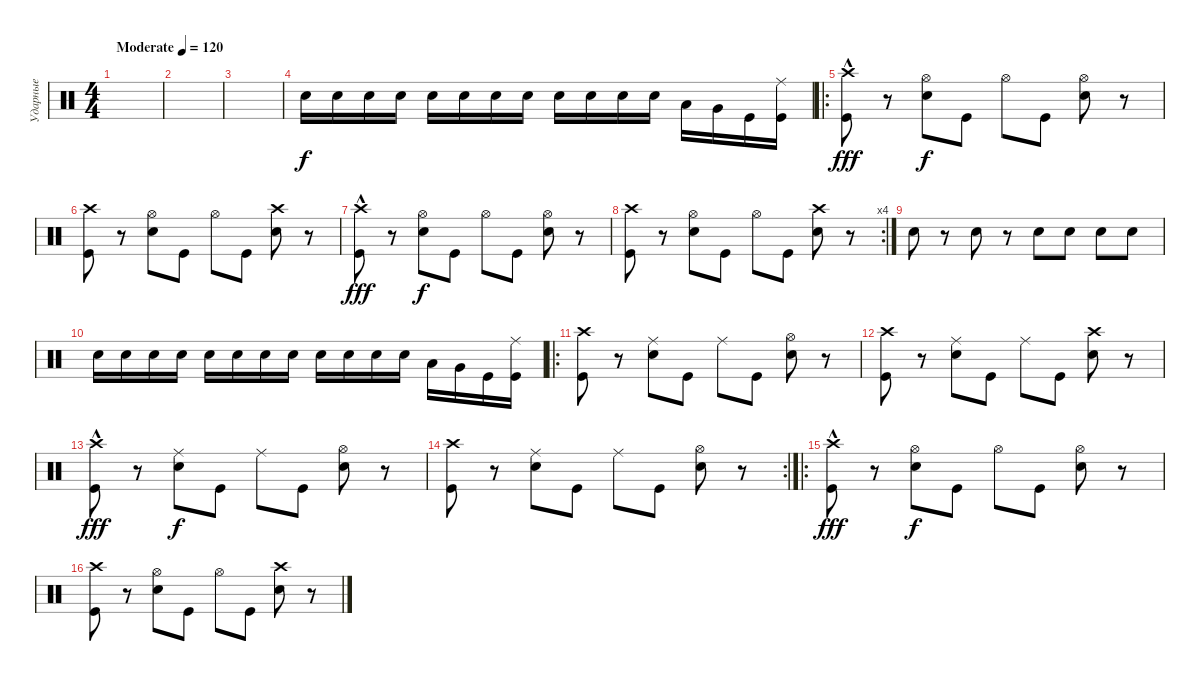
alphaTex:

\track ("Ударные" "Ударные") {instrument percussion}
\staff {score}
\articulation defaults
\ts (4 4)
\tempo (120 "Moderate")
\clef neutral
\ks c
|
|
|
"Snare (hit) 2".16{bu 60} "Snare (hit) 2".16 "Snare (hit) 2".16 "Snare (hit) 2".16 "Snare (hit) 2".16 "Snare (hit) 2".16 "Snare (hit) 2".16 "Snare (hit) 2".16 "Snare (hit) 2".16 "Snare (hit) 2".16 "Snare (hit) 2".16 "Snare (hit) 2".16 "Low Tom (hit)".16 "Very Low Tom (hit)".16 "Kick (hit)".16 ("Kick (hit)" "Ride (middle)").16 |
\ro
("Kick (hit)" "Crash high (hit)"{hac}).8{dy fff} r.8 ("Snare (hit) 2" "Hi-Hat (open)").8{dy f} "Kick (hit)".8 "Hi-Hat (open)".8 "Kick (hit)".8 ("Snare (hit) 2" "Hi-Hat (open)").8 r.8 |
("Kick (hit)" "Crash high (hit)").8 r.8 ("Snare (hit) 2" "Hi-Hat (open)").8 "Kick (hit)".8 "Hi-Hat (open)".8 "Kick (hit)".8 ("Snare (hit) 2" "Crash high (hit)").8 r.8 |
("Kick (hit)" "Crash high (hit)"{hac}).8{dy fff} r.8 ("Snare (hit) 2" "Hi-Hat (open)").8{dy f} "Kick (hit)".8 "Hi-Hat (open)".8 "Kick (hit)".8 ("Snare (hit) 2" "Hi-Hat (open)").8 r.8 |
\rc 4
("Kick (hit)" "Crash high (hit)").8 r.8 ("Snare (hit) 2" "Hi-Hat (open)").8 "Kick (hit)".8 "Hi-Hat (open)".8 "Kick (hit)".8 ("Snare (hit) 2" "Crash high (hit)").8 r.8 |
"Snare (hit) 2".8 r.8 "Snare (hit) 2".8 r.8 "Snare (hit) 2".8 "Snare (hit) 2".8 "Snare (hit) 2".8 "Snare (hit) 2".8 |
"Snare (hit) 2".16{bu 60} "Snare (hit) 2".16 "Snare (hit) 2".16 "Snare (hit) 2".16 "Snare (hit) 2".16 "Snare (hit) 2".16 "Snare (hit) 2".16 "Snare (hit) 2".16 "Snare (hit) 2".16 "Snare (hit) 2".16 "Snare (hit) 2".16 "Snare (hit) 2".16 "Low Tom (hit)".16 "Very Low Tom (hit)".16 "Kick (hit)".16 ("Kick (hit)" "Ride (middle)").16 |
\ro
("Crash high (hit)" "Kick (hit)").8 r.8 ("Snare (hit) 2" "Ride (middle)").8 "Kick (hit)".8 "Ride (middle)".8 "Kick (hit)".8 ("Snare (hit) 2" "Hi-Hat (open)").8 r.8 |
("Crash high (hit)" "Kick (hit)").8 r.8 ("Snare (hit) 2" "Ride (middle)").8 "Kick (hit)".8 "Ride (middle)".8 "Kick (hit)".8 ("Snare (hit) 2" "Crash high (hit)").8 r.8 |
("Crash high (hit)"{hac} "Kick (hit)").8{dy fff} r.8 ("Snare (hit) 2" "Ride (middle)").8{dy f} "Kick (hit)".8 "Ride (middle)".8 "Kick (hit)".8 ("Snare (hit) 2" "Hi-Hat (open)").8 r.8 |
\rc 2
("Crash high (hit)" "Kick (hit)").8 r.8 ("Snare (hit) 2" "Ride (middle)").8 "Kick (hit)".8 "Ride (middle)".8 "Kick (hit)".8 ("Snare (hit) 2" "Hi-Hat (open)").8 r.8 |
\ro
("Kick (hit)" "Crash high (hit)"{hac}).8{dy fff} r.8 ("Snare (hit) 2" "Hi-Hat (open)").8{dy f} "Kick (hit)".8 "Hi-Hat (open)".8 "Kick (hit)".8 ("Snare (hit) 2" "Hi-Hat (open)").8 r.8 |
("Kick (hit)" "Crash high (hit)").8 r.8 ("Snare (hit) 2" "Hi-Hat (open)").8 "Kick (hit)".8 "Hi-Hat (open)".8 "Kick (hit)".8 ("Snare (hit) 2" "Crash high (hit)").8 r.8
